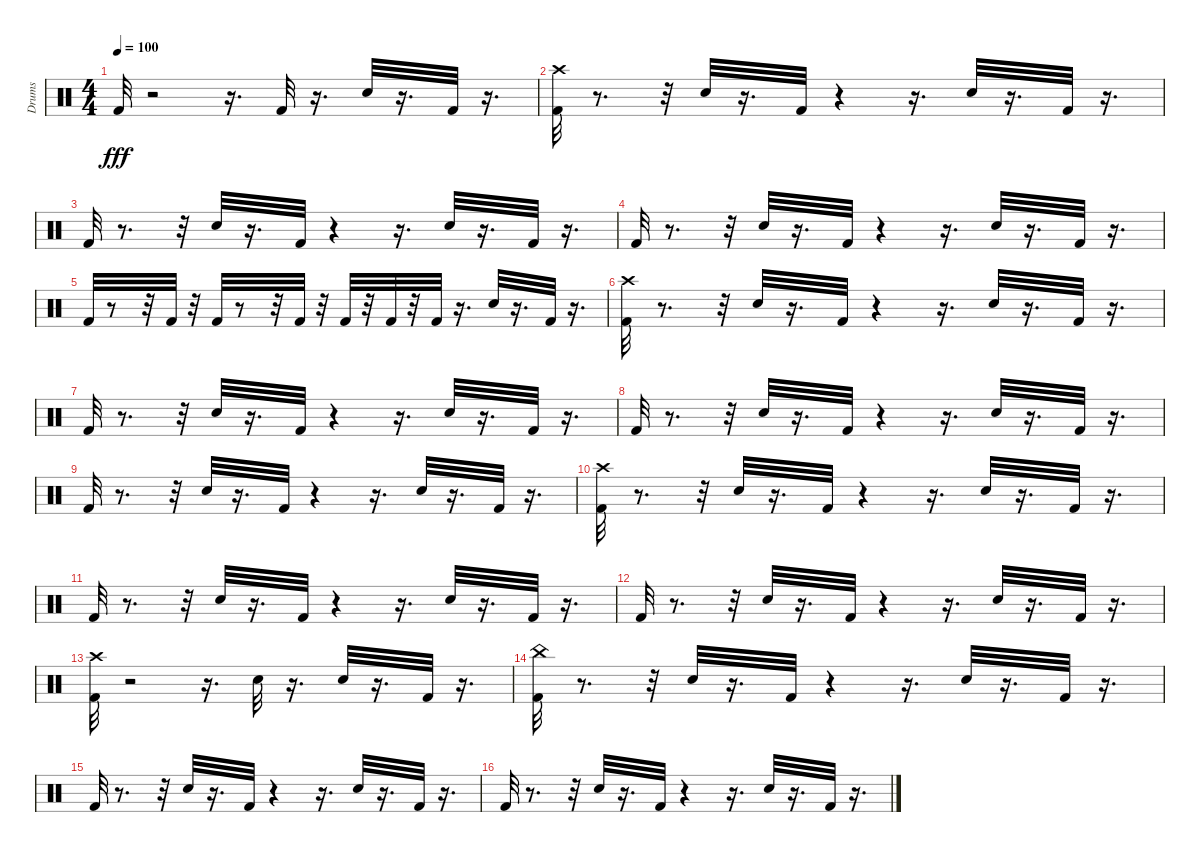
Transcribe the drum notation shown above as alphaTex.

\track ("Drums" "Drums") {instrument percussion}
\staff {score}
\articulation defaults
\ts (4 4)
\tempo 100
\clef neutral
\ks c "Kick (hit) 2".32{dy fff}
r.2 r.16{d} "Kick (hit) 2".32 r.16{d} "Electric Snare (hit)".32 r.16{d} "Kick (hit) 2".32 r.16{d} |
("Crash high (hit)" "Kick (hit) 2").32 r.8{d} r.32 "Electric Snare (hit)".32 r.16{d} "Kick (hit) 2".32 r.4 r.16{d} "Electric Snare (hit)".32 r.16{d} "Kick (hit) 2".32 r.16{d} |
"Kick (hit) 2".32 r.8{d} r.32 "Electric Snare (hit)".32 r.16{d} "Kick (hit) 2".32 r.4 r.16{d} "Electric Snare (hit)".32 r.16{d} "Kick (hit) 2".32 r.16{d} |
"Kick (hit) 2".32 r.8{d} r.32 "Electric Snare (hit)".32 r.16{d} "Kick (hit) 2".32 r.4 r.16{d} "Electric Snare (hit)".32 r.16{d} "Kick (hit) 2".32 r.16{d} |
"Kick (hit) 2".32 r.8 r.32 "Kick (hit) 2".32 r.32 "Kick (hit) 2".32 r.8 r.32 "Kick (hit) 2".32 r.32 "Kick (hit) 2".32 r.32 "Kick (hit) 2".32 r.32 "Kick (hit) 2".32 r.16{d} "Electric Snare (hit)".32 r.16{d} "Kick (hit) 2".32 r.16{d} |
("Crash high (hit)" "Kick (hit) 2").32 r.8{d} r.32 "Electric Snare (hit)".32 r.16{d} "Kick (hit) 2".32 r.4 r.16{d} "Electric Snare (hit)".32 r.16{d} "Kick (hit) 2".32 r.16{d} |
"Kick (hit) 2".32 r.8{d} r.32 "Electric Snare (hit)".32 r.16{d} "Kick (hit) 2".32 r.4 r.16{d} "Electric Snare (hit)".32 r.16{d} "Kick (hit) 2".32 r.16{d} |
"Kick (hit) 2".32 r.8{d} r.32 "Electric Snare (hit)".32 r.16{d} "Kick (hit) 2".32 r.4 r.16{d} "Electric Snare (hit)".32 r.16{d} "Kick (hit) 2".32 r.16{d} |
"Kick (hit) 2".32 r.8{d} r.32 "Electric Snare (hit)".32 r.16{d} "Kick (hit) 2".32 r.4 r.16{d} "Electric Snare (hit)".32 r.16{d} "Kick (hit) 2".32 r.16{d} |
("Crash high (hit)" "Kick (hit) 2").32 r.8{d} r.32 "Electric Snare (hit)".32 r.16{d} "Kick (hit) 2".32 r.4 r.16{d} "Electric Snare (hit)".32 r.16{d} "Kick (hit) 2".32 r.16{d} |
"Kick (hit) 2".32 r.8{d} r.32 "Electric Snare (hit)".32 r.16{d} "Kick (hit) 2".32 r.4 r.16{d} "Electric Snare (hit)".32 r.16{d} "Kick (hit) 2".32 r.16{d} |
"Kick (hit) 2".32 r.8{d} r.32 "Electric Snare (hit)".32 r.16{d} "Kick (hit) 2".32 r.4 r.16{d} "Electric Snare (hit)".32 r.16{d} "Kick (hit) 2".32 r.16{d} |
("Crash high (hit)" "Kick (hit) 2").32 r.2 r.16{d} "Electric Snare (hit)".32 r.16{d} "Electric Snare (hit)".32 r.16{d} "Kick (hit) 2".32 r.16{d} |
("China (hit)" "Kick (hit) 2").32 r.8{d} r.32 "Electric Snare (hit)".32 r.16{d} "Kick (hit) 2".32 r.4 r.16{d} "Electric Snare (hit)".32 r.16{d} "Kick (hit) 2".32 r.16{d} |
"Kick (hit) 2".32 r.8{d} r.32 "Electric Snare (hit)".32 r.16{d} "Kick (hit) 2".32 r.4 r.16{d} "Electric Snare (hit)".32 r.16{d} "Kick (hit) 2".32 r.16{d} |
"Kick (hit) 2".32 r.8{d} r.32 "Electric Snare (hit)".32 r.16{d} "Kick (hit) 2".32 r.4 r.16{d} "Electric Snare (hit)".32 r.16{d} "Kick (hit) 2".32 r.16{d}
